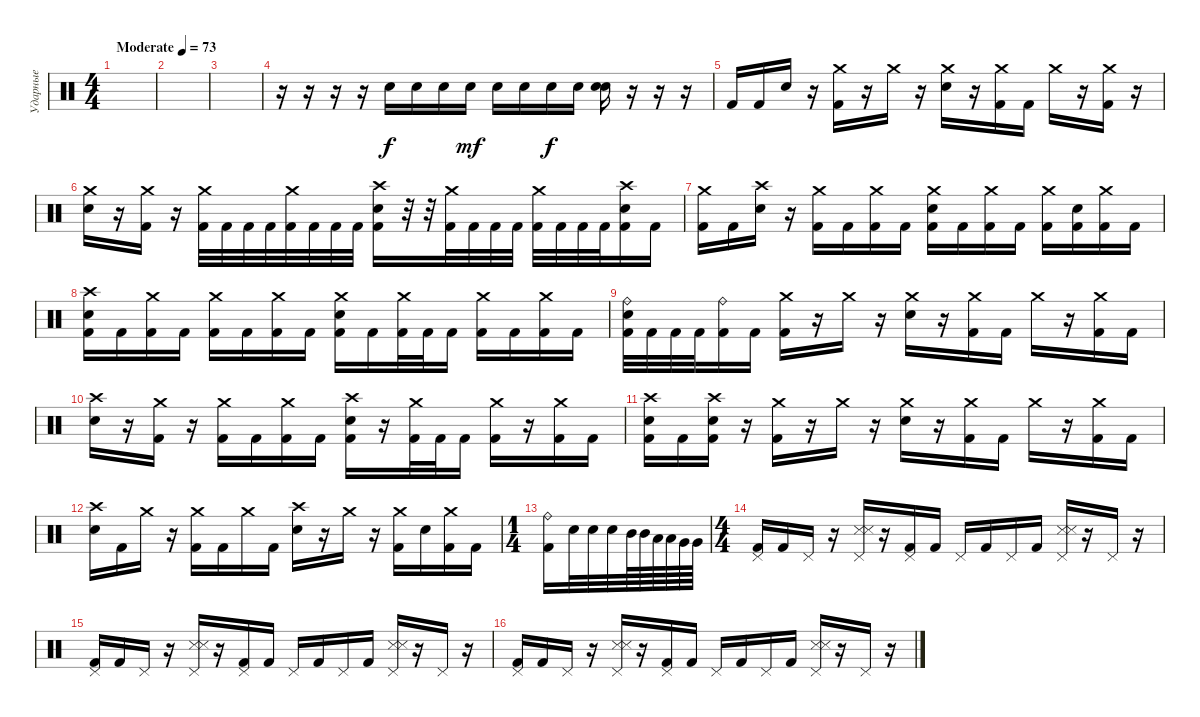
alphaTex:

\track ("Ударные" "Ударные") {instrument percussion}
\staff {score}
\articulation defaults
\ts (4 4)
\tempo (73 "Moderate")
\clef neutral
\ks c
|
|
|
r.16 r.16 r.16 r.16 "Electric Snare (hit)".16 "Electric Snare (hit)".16 "Electric Snare (hit)".16 "Electric Snare (hit)".16{dy mf} "Electric Snare (hit)".16 "Electric Snare (hit)".16 "Electric Snare (hit)".16{dy f} "Electric Snare (hit)".16 ("Electric Snare (hit)" "Electric Snare (hit)").16 r.16 r.16 r.16 |
"Kick (hit) 2".16 "Kick (hit) 2".16 "Electric Snare (hit)".16 r.16 ("Crash medium (hit)" "Kick (hit) 2").16 r.16 "Crash medium (hit)".16 r.16 ("Crash medium (hit)" "Electric Snare (hit)").16 r.16 ("Crash medium (hit)" "Kick (hit) 2").16 "Kick (hit) 2".16 "Crash medium (hit)".16 r.16 ("Crash medium (hit)" "Kick (hit) 2").16 r.16 |
("Crash medium (hit)" "Electric Snare (hit)").16 r.16 ("Crash medium (hit)" "Kick (hit) 2").16 r.16 ("Crash medium (hit)" "Kick (hit) 2").32 "Kick (hit) 2".32 "Kick (hit) 2".32 "Kick (hit) 2".32 ("Crash medium (hit)" "Kick (hit) 2").32 "Kick (hit) 2".32 "Kick (hit) 2".32 "Kick (hit) 2".32 ("Crash high (hit)" "Electric Snare (hit)" "Kick (hit) 2").16 r.32 r.32 ("Crash medium (hit)" "Kick (hit) 2").32 "Kick (hit) 2".32 "Kick (hit) 2".32 "Kick (hit) 2".32 ("Crash medium (hit)" "Kick (hit) 2").32 "Kick (hit) 2".32 "Kick (hit) 2".32 "Kick (hit) 2".32 ("Crash high (hit)" "Electric Snare (hit)" "Kick (hit) 2").16 "Kick (hit) 2".16 |
("Crash medium (hit)" "Kick (hit) 2").16 "Kick (hit) 2".16 ("Crash high (hit)" "Electric Snare (hit)").16 r.16 ("Crash medium (hit)" "Kick (hit) 2").16 "Kick (hit) 2".16 ("Crash medium (hit)" "Kick (hit) 2").16 "Kick (hit) 2".16 ("Crash medium (hit)" "Electric Snare (hit)" "Kick (hit) 2").16 "Kick (hit) 2".16 ("Crash medium (hit)" "Kick (hit) 2").16 "Kick (hit) 2".16 ("Crash medium (hit)" "Kick (hit) 2").16 ("Electric Snare (hit)" "Kick (hit) 2").16 ("Crash medium (hit)" "Kick (hit) 2").16 "Kick (hit) 2".16 |
("Crash high (hit)" "Electric Snare (hit)" "Kick (hit) 2").16 "Kick (hit) 2".16 ("Crash medium (hit)" "Kick (hit) 2").16 "Kick (hit) 2".16 ("Crash medium (hit)" "Kick (hit) 2").16 "Kick (hit) 2".16 ("Crash medium (hit)" "Kick (hit) 2").16 "Kick (hit) 2".16 ("Crash medium (hit)" "Electric Snare (hit)" "Kick (hit) 2").16 "Kick (hit) 2".16 ("Crash medium (hit)" "Kick (hit) 2").32 "Kick (hit) 2".32 "Kick (hit) 2".16 ("Crash medium (hit)" "Kick (hit) 2").16 "Kick (hit) 2".16 ("Crash medium (hit)" "Kick (hit) 2").16 "Kick (hit) 2".16 |
("Ride (bell)" "Electric Snare (hit)" "Kick (hit) 2").32 "Kick (hit) 2".32 "Kick (hit) 2".32 "Kick (hit) 2".32 ("Ride (bell)" "Kick (hit) 2").16 "Kick (hit) 2".16 ("Crash medium (hit)" "Kick (hit) 2").16 r.16 "Crash medium (hit)".16 r.16 ("Crash medium (hit)" "Electric Snare (hit)").16 r.16 ("Crash medium (hit)" "Kick (hit) 2").16 "Kick (hit) 2".16 "Crash medium (hit)".16 r.16 ("Crash medium (hit)" "Kick (hit) 2").16 "Kick (hit) 2".16 |
("Crash high (hit)" "Electric Snare (hit)").16 r.16 ("Crash medium (hit)" "Kick (hit) 2").16 r.16 ("Crash medium (hit)" "Kick (hit) 2").16 "Kick (hit) 2".16 ("Crash medium (hit)" "Kick (hit) 2").16 "Kick (hit) 2".16 ("Crash high (hit)" "Electric Snare (hit)" "Kick (hit) 2").16 r.16 ("Crash medium (hit)" "Kick (hit) 2").32 "Kick (hit) 2".32 "Kick (hit) 2".16 ("Crash medium (hit)" "Kick (hit) 2").16 r.16 ("Crash medium (hit)" "Kick (hit) 2").16 "Kick (hit) 2".16 |
("Crash high (hit)" "Electric Snare (hit)" "Kick (hit) 2").16 "Kick (hit) 2".16 ("Crash high (hit)" "Electric Snare (hit)" "Kick (hit) 2").16 r.16 ("Crash medium (hit)" "Kick (hit) 2").16 r.16 "Crash medium (hit)".16 r.16 ("Crash medium (hit)" "Electric Snare (hit)").16 r.16 ("Crash medium (hit)" "Kick (hit) 2").16 "Kick (hit) 2".16 "Crash medium (hit)".16 r.16 ("Crash medium (hit)" "Kick (hit) 2").16 "Kick (hit) 2".16 |
("Crash high (hit)" "Electric Snare (hit)").16 "Kick (hit) 2".16 "Crash medium (hit)".16 r.16 ("Crash medium (hit)" "Kick (hit) 2").16 "Kick (hit) 2".16 "Crash medium (hit)".16 "Kick (hit) 2".16 ("Crash high (hit)" "Electric Snare (hit)").16 r.16 "Crash medium (hit)".16 r.16 ("Crash medium (hit)" "Kick (hit) 2").16 "Electric Snare (hit)".16 ("Crash medium (hit)" "Kick (hit) 2").16 "Kick (hit) 2".16 |
\ts (1 4)
("Ride (bell)" "Kick (hit) 2").16 "Electric Snare (hit)".32 "Electric Snare (hit)".32 "Electric Snare (hit)".32 "Mid Tom (hit)".64 "Mid Tom (hit)".64 "Low Tom (hit)".64 "Low Tom (hit)".64 "Very Low Tom (hit)".64 "Very Low Tom (hit)".64 |
\ts (4 4)
("Pedal Hi-Hat (hit)" "Kick (hit) 2").16 "Kick (hit) 2".16 "Pedal Hi-Hat (hit)".16 r.16 ("Pedal Hi-Hat (hit)" "Snare (side stick) 3" "Snare (side stick) 3").16 r.16 ("Pedal Hi-Hat (hit)" "Kick (hit) 2").16 "Kick (hit) 2".16 "Pedal Hi-Hat (hit)".16 "Kick (hit) 2".16 "Pedal Hi-Hat (hit)".16 "Kick (hit) 2".16 ("Pedal Hi-Hat (hit)" "Snare (side stick) 3" "Snare (side stick) 3").16 r.16 "Pedal Hi-Hat (hit)".16 r.16 |
("Pedal Hi-Hat (hit)" "Kick (hit) 2").16 "Kick (hit) 2".16 "Pedal Hi-Hat (hit)".16 r.16 ("Pedal Hi-Hat (hit)" "Snare (side stick) 3" "Snare (side stick) 3").16 r.16 ("Pedal Hi-Hat (hit)" "Kick (hit) 2").16 "Kick (hit) 2".16 "Pedal Hi-Hat (hit)".16 "Kick (hit) 2".16 "Pedal Hi-Hat (hit)".16 "Kick (hit) 2".16 ("Pedal Hi-Hat (hit)" "Snare (side stick) 3" "Snare (side stick) 3").16 r.16 "Pedal Hi-Hat (hit)".16 r.16 |
("Pedal Hi-Hat (hit)" "Kick (hit) 2").16 "Kick (hit) 2".16 "Pedal Hi-Hat (hit)".16 r.16 ("Pedal Hi-Hat (hit)" "Snare (side stick) 3" "Snare (side stick) 3").16 r.16 ("Pedal Hi-Hat (hit)" "Kick (hit) 2").16 "Kick (hit) 2".16 "Pedal Hi-Hat (hit)".16 "Kick (hit) 2".16 "Pedal Hi-Hat (hit)".16 "Kick (hit) 2".16 ("Pedal Hi-Hat (hit)" "Snare (side stick) 3" "Snare (side stick) 3").16 r.16 "Pedal Hi-Hat (hit)".16 r.16
